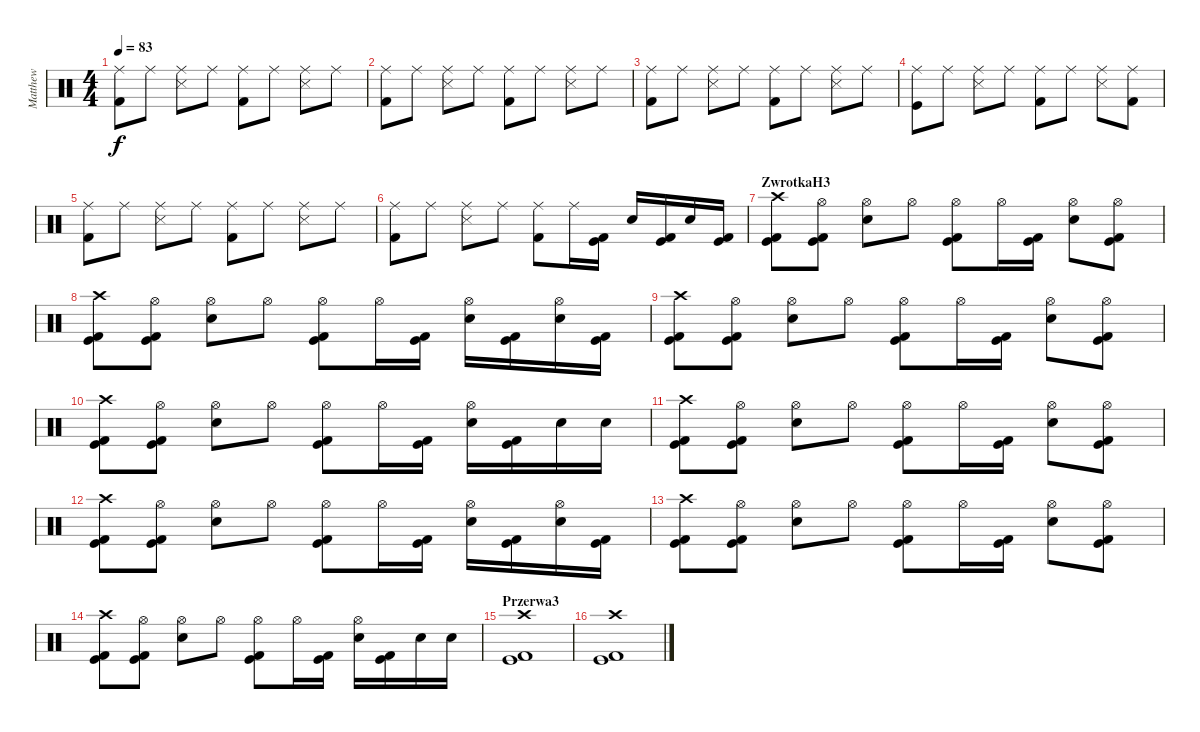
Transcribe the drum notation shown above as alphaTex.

\track ("Matthew" "Matthew") {instrument percussion}
\staff {score}
\articulation defaults
\ts (4 4)
\tempo 83
\clef neutral
\ks c
("Kick (hit) 2" "Ride (middle)").8{dy f} "Ride (middle)".8 ("Ride (middle)" "Snare (side stick) 3").8 "Ride (middle)".8 ("Kick (hit) 2" "Ride (middle)").8 "Ride (middle)".8 ("Ride (middle)" "Snare (side stick) 3").8 "Ride (middle)".8 |
("Kick (hit) 2" "Ride (middle)").8 "Ride (middle)".8 ("Ride (middle)" "Snare (side stick) 3").8 "Ride (middle)".8 ("Kick (hit) 2" "Ride (middle)").8 "Ride (middle)".8 ("Ride (middle)" "Snare (side stick) 3").8 "Ride (middle)".8 |
("Kick (hit) 2" "Ride (middle)").8 "Ride (middle)".8 ("Ride (middle)" "Snare (side stick) 3").8 "Ride (middle)".8 ("Kick (hit) 2" "Ride (middle)").8 "Ride (middle)".8 ("Ride (middle)" "Snare (side stick) 3").8 "Ride (middle)".8 |
("Kick (hit)" "Ride (middle)").8 "Ride (middle)".8 ("Ride (middle)" "Snare (side stick) 3").8 "Ride (middle)".8 ("Ride (middle)" "Kick (hit) 2").8 "Ride (middle)".8 ("Ride (middle)" "Snare (side stick) 3").8 ("Ride (middle)" "Kick (hit) 2").8 |
("Kick (hit) 2" "Ride (middle)").8 "Ride (middle)".8 ("Ride (middle)" "Snare (side stick) 3").8 "Ride (middle)".8 ("Kick (hit) 2" "Ride (middle)").8 "Ride (middle)".8 ("Ride (middle)" "Snare (side stick) 3").8 "Ride (middle)".8 |
("Kick (hit) 2" "Ride (middle)").8 "Ride (middle)".8 ("Ride (middle)" "Snare (side stick) 3").8 "Ride (middle)".8 ("Kick (hit) 2" "Ride (middle)").8 "Ride (middle)".16 ("Kick (hit) 2" "Kick (hit)").16 "Snare (hit) 2".16 ("Kick (hit) 2" "Kick (hit)").16 "Snare (hit) 2".16 ("Kick (hit) 2" "Kick (hit)").16 |
\section ("" "ZwrotkaH3")
("Kick (hit) 2" "Kick (hit)" "Crash high (hit)").8 ("Kick (hit) 2" "Kick (hit)" "Hi-Hat (open)").8 ("Snare (hit) 2" "Hi-Hat (open)").8 "Hi-Hat (open)".8 ("Hi-Hat (open)" "Kick (hit) 2" "Kick (hit)").8 "Hi-Hat (open)".16 ("Kick (hit) 2" "Kick (hit)").16 ("Snare (hit) 2" "Hi-Hat (open)").8 ("Kick (hit) 2" "Kick (hit)" "Hi-Hat (open)").8 |
("Kick (hit) 2" "Kick (hit)" "Crash high (hit)").8 ("Kick (hit) 2" "Kick (hit)" "Hi-Hat (open)").8 ("Snare (hit) 2" "Hi-Hat (open)").8 "Hi-Hat (open)".8 ("Hi-Hat (open)" "Kick (hit) 2" "Kick (hit)").8 "Hi-Hat (open)".16 ("Kick (hit) 2" "Kick (hit)").16 ("Snare (hit) 2" "Hi-Hat (open)").16 ("Kick (hit) 2" "Kick (hit)").16 ("Snare (hit) 2" "Hi-Hat (open)").16 ("Kick (hit) 2" "Kick (hit)").16 |
("Kick (hit) 2" "Kick (hit)" "Crash high (hit)").8 ("Kick (hit) 2" "Kick (hit)" "Hi-Hat (open)").8 ("Snare (hit) 2" "Hi-Hat (open)").8 "Hi-Hat (open)".8 ("Hi-Hat (open)" "Kick (hit) 2" "Kick (hit)").8 "Hi-Hat (open)".16 ("Kick (hit) 2" "Kick (hit)").16 ("Snare (hit) 2" "Hi-Hat (open)").8 ("Kick (hit) 2" "Kick (hit)" "Hi-Hat (open)").8 |
("Kick (hit) 2" "Kick (hit)" "Crash high (hit)").8 ("Kick (hit) 2" "Kick (hit)" "Hi-Hat (open)").8 ("Snare (hit) 2" "Hi-Hat (open)").8 "Hi-Hat (open)".8 ("Hi-Hat (open)" "Kick (hit) 2" "Kick (hit)").8 "Hi-Hat (open)".16 ("Kick (hit) 2" "Kick (hit)").16 ("Snare (hit) 2" "Hi-Hat (open)").16 ("Kick (hit) 2" "Kick (hit)").16 "Snare (hit) 2".16 "Snare (hit) 2".16 |
("Kick (hit) 2" "Kick (hit)" "Crash high (hit)").8 ("Kick (hit) 2" "Kick (hit)" "Hi-Hat (open)").8 ("Snare (hit) 2" "Hi-Hat (open)").8 "Hi-Hat (open)".8 ("Hi-Hat (open)" "Kick (hit) 2" "Kick (hit)").8 "Hi-Hat (open)".16 ("Kick (hit) 2" "Kick (hit)").16 ("Snare (hit) 2" "Hi-Hat (open)").8 ("Kick (hit) 2" "Kick (hit)" "Hi-Hat (open)").8 |
("Kick (hit) 2" "Kick (hit)" "Crash high (hit)").8 ("Kick (hit) 2" "Kick (hit)" "Hi-Hat (open)").8 ("Snare (hit) 2" "Hi-Hat (open)").8 "Hi-Hat (open)".8 ("Hi-Hat (open)" "Kick (hit) 2" "Kick (hit)").8 "Hi-Hat (open)".16 ("Kick (hit) 2" "Kick (hit)").16 ("Snare (hit) 2" "Hi-Hat (open)").16 ("Kick (hit) 2" "Kick (hit)").16 ("Snare (hit) 2" "Hi-Hat (open)").16 ("Kick (hit) 2" "Kick (hit)").16 |
("Kick (hit) 2" "Kick (hit)" "Crash high (hit)").8 ("Kick (hit) 2" "Kick (hit)" "Hi-Hat (open)").8 ("Snare (hit) 2" "Hi-Hat (open)").8 "Hi-Hat (open)".8 ("Hi-Hat (open)" "Kick (hit) 2" "Kick (hit)").8 "Hi-Hat (open)".16 ("Kick (hit) 2" "Kick (hit)").16 ("Snare (hit) 2" "Hi-Hat (open)").8 ("Kick (hit) 2" "Kick (hit)" "Hi-Hat (open)").8 |
("Kick (hit) 2" "Kick (hit)" "Crash high (hit)").8 ("Kick (hit) 2" "Kick (hit)" "Hi-Hat (open)").8 ("Snare (hit) 2" "Hi-Hat (open)").8 "Hi-Hat (open)".8 ("Hi-Hat (open)" "Kick (hit) 2" "Kick (hit)").8 "Hi-Hat (open)".16 ("Kick (hit) 2" "Kick (hit)").16 ("Snare (hit) 2" "Hi-Hat (open)").16 ("Kick (hit) 2" "Kick (hit)").16 "Snare (hit) 2".16 "Snare (hit) 2".16 |
\section ("" "Przerwa3")
("Kick (hit) 2" "Kick (hit)" "Crash high (hit)").1 |
("Kick (hit) 2" "Kick (hit)" "Crash high (hit)").1
